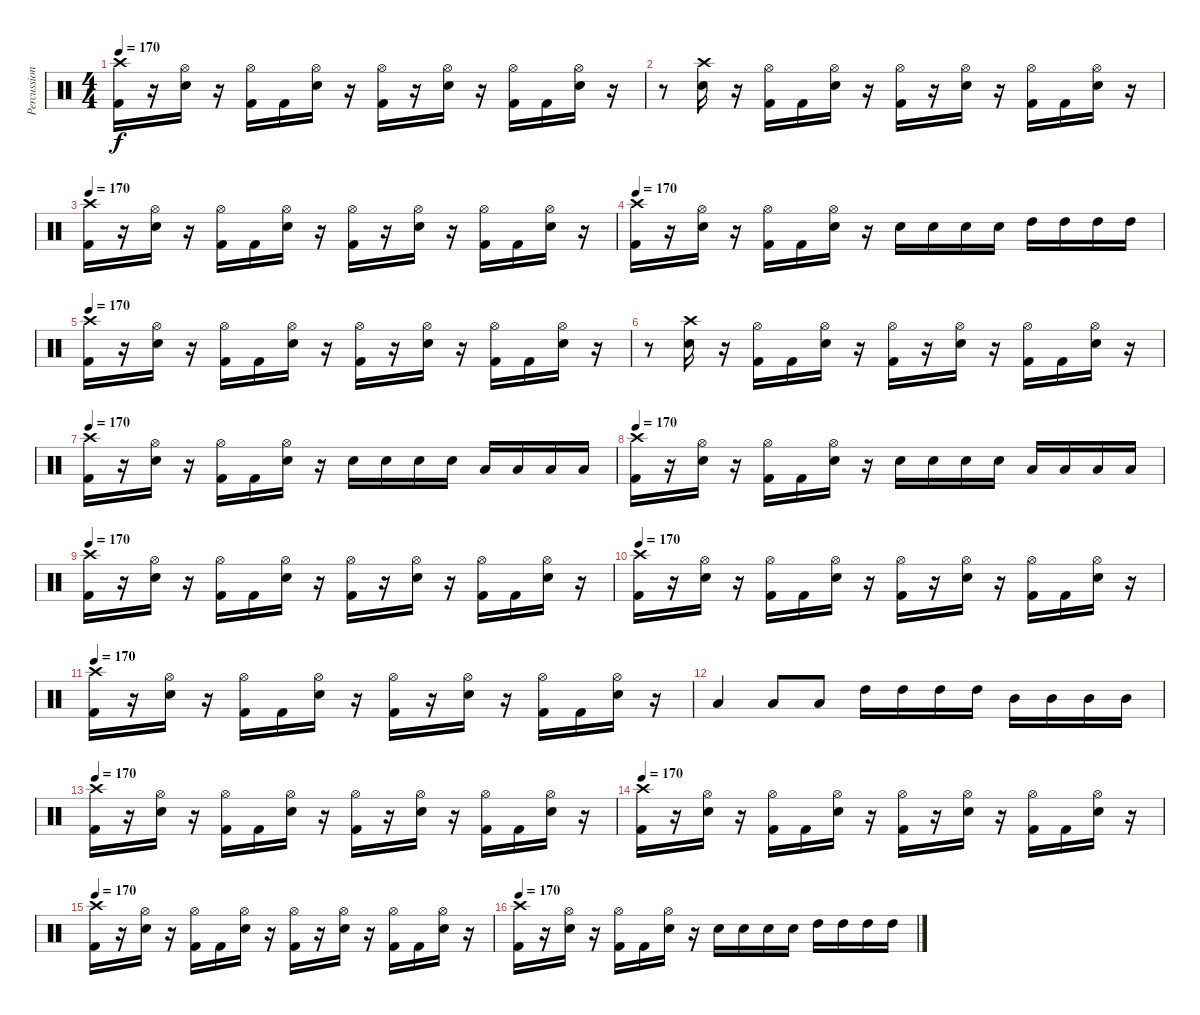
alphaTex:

\track ("Percussioni" "Percussion") {instrument percussion}
\staff {score}
\articulation defaults
\ts (4 4)
\tempo 170
\clef neutral
\ks c
("Kick (hit) 2" "Crash high (hit)").16{dy f} r.16 ("Snare (hit) 2" "Hi-Hat (open)").16 r.16 ("Kick (hit) 2" "Hi-Hat (open)").16 "Kick (hit) 2".16 ("Snare (hit) 2" "Hi-Hat (open)").16 r.16 ("Kick (hit) 2" "Hi-Hat (open)").16 r.16 ("Snare (hit) 2" "Hi-Hat (open)").16 r.16 ("Kick (hit) 2" "Hi-Hat (open)").16 "Kick (hit) 2".16 ("Snare (hit) 2" "Hi-Hat (open)").16 r.16 |
r.8 ("Snare (hit) 2" "Crash high (hit)").16 r.16 ("Kick (hit) 2" "Hi-Hat (open)").16 "Kick (hit) 2".16 ("Snare (hit) 2" "Hi-Hat (open)").16 r.16 ("Kick (hit) 2" "Hi-Hat (open)").16 r.16 ("Snare (hit) 2" "Hi-Hat (open)").16 r.16 ("Kick (hit) 2" "Hi-Hat (open)").16 "Kick (hit) 2".16 ("Snare (hit) 2" "Hi-Hat (open)").16 r.16 |
\tempo 170
("Kick (hit) 2" "Crash high (hit)").16 r.16 ("Snare (hit) 2" "Hi-Hat (open)").16 r.16 ("Kick (hit) 2" "Hi-Hat (open)").16 "Kick (hit) 2".16 ("Snare (hit) 2" "Hi-Hat (open)").16 r.16 ("Kick (hit) 2" "Hi-Hat (open)").16 r.16 ("Snare (hit) 2" "Hi-Hat (open)").16 r.16 ("Kick (hit) 2" "Hi-Hat (open)").16 "Kick (hit) 2".16 ("Snare (hit) 2" "Hi-Hat (open)").16 r.16 |
\tempo 170
("Kick (hit) 2" "Crash high (hit)").16 r.16 ("Snare (hit) 2" "Hi-Hat (open)").16 r.16 ("Kick (hit) 2" "Hi-Hat (open)").16 "Kick (hit) 2".16 ("Snare (hit) 2" "Hi-Hat (open)").16 r.16 "Snare (hit) 2".16 "Snare (hit) 2".16 "Snare (hit) 2".16 "Snare (hit) 2".16 "High Tom (hit)".16 "High Tom (hit)".16 "High Tom (hit)".16 "High Tom (hit)".16 |
\tempo 170
("Kick (hit) 2" "Crash high (hit)").16 r.16 ("Snare (hit) 2" "Hi-Hat (open)").16 r.16 ("Kick (hit) 2" "Hi-Hat (open)").16 "Kick (hit) 2".16 ("Snare (hit) 2" "Hi-Hat (open)").16 r.16 ("Kick (hit) 2" "Hi-Hat (open)").16 r.16 ("Snare (hit) 2" "Hi-Hat (open)").16 r.16 ("Kick (hit) 2" "Hi-Hat (open)").16 "Kick (hit) 2".16 ("Snare (hit) 2" "Hi-Hat (open)").16 r.16 |
r.8 ("Snare (hit) 2" "Crash high (hit)").16 r.16 ("Kick (hit) 2" "Hi-Hat (open)").16 "Kick (hit) 2".16 ("Snare (hit) 2" "Hi-Hat (open)").16 r.16 ("Kick (hit) 2" "Hi-Hat (open)").16 r.16 ("Snare (hit) 2" "Hi-Hat (open)").16 r.16 ("Kick (hit) 2" "Hi-Hat (open)").16 "Kick (hit) 2".16 ("Snare (hit) 2" "Hi-Hat (open)").16 r.16 |
\tempo 170
("Kick (hit) 2" "Crash high (hit)").16 r.16 ("Snare (hit) 2" "Hi-Hat (open)").16 r.16 ("Kick (hit) 2" "Hi-Hat (open)").16 "Kick (hit) 2".16 ("Snare (hit) 2" "Hi-Hat (open)").16 r.16 "Snare (hit) 2".16 "Snare (hit) 2".16 "Snare (hit) 2".16 "Snare (hit) 2".16 "Low Tom (hit)".16 "Low Tom (hit)".16 "Low Tom (hit)".16 "Low Tom (hit)".16 |
\tempo 170
("Kick (hit) 2" "Crash high (hit)").16 r.16 ("Snare (hit) 2" "Hi-Hat (open)").16 r.16 ("Kick (hit) 2" "Hi-Hat (open)").16 "Kick (hit) 2".16 ("Snare (hit) 2" "Hi-Hat (open)").16 r.16 "Snare (hit) 2".16 "Snare (hit) 2".16 "Snare (hit) 2".16 "Snare (hit) 2".16 "Low Tom (hit)".16 "Low Tom (hit)".16 "Low Tom (hit)".16 "Low Tom (hit)".16 |
\tempo 170
("Kick (hit) 2" "Crash high (hit)").16 r.16 ("Snare (hit) 2" "Hi-Hat (open)").16 r.16 ("Kick (hit) 2" "Hi-Hat (open)").16 "Kick (hit) 2".16 ("Snare (hit) 2" "Hi-Hat (open)").16 r.16 ("Kick (hit) 2" "Hi-Hat (open)").16 r.16 ("Snare (hit) 2" "Hi-Hat (open)").16 r.16 ("Kick (hit) 2" "Hi-Hat (open)").16 "Kick (hit) 2".16 ("Snare (hit) 2" "Hi-Hat (open)").16 r.16 |
\tempo 170
("Kick (hit) 2" "Crash high (hit)").16 r.16 ("Snare (hit) 2" "Hi-Hat (open)").16 r.16 ("Kick (hit) 2" "Hi-Hat (open)").16 "Kick (hit) 2".16 ("Snare (hit) 2" "Hi-Hat (open)").16 r.16 ("Kick (hit) 2" "Hi-Hat (open)").16 r.16 ("Snare (hit) 2" "Hi-Hat (open)").16 r.16 ("Kick (hit) 2" "Hi-Hat (open)").16 "Kick (hit) 2".16 ("Snare (hit) 2" "Hi-Hat (open)").16 r.16 |
\tempo 170
("Kick (hit) 2" "Crash high (hit)").16 r.16 ("Snare (hit) 2" "Hi-Hat (open)").16 r.16 ("Kick (hit) 2" "Hi-Hat (open)").16 "Kick (hit) 2".16 ("Snare (hit) 2" "Hi-Hat (open)").16 r.16 ("Kick (hit) 2" "Hi-Hat (open)").16 r.16 ("Snare (hit) 2" "Hi-Hat (open)").16 r.16 ("Kick (hit) 2" "Hi-Hat (open)").16 "Kick (hit) 2".16 ("Snare (hit) 2" "Hi-Hat (open)").16 r.16 |
"Low Tom (hit)".4 "Low Tom (hit)".8 "Low Tom (hit)".8 "High Tom (hit)".16 "High Tom (hit)".16 "High Tom (hit)".16 "High Tom (hit)".16 "Mid Tom (hit)".16 "Mid Tom (hit)".16 "Mid Tom (hit)".16 "Mid Tom (hit)".16 |
\tempo 170
("Kick (hit) 2" "Crash high (hit)").16 r.16 ("Snare (hit) 2" "Hi-Hat (open)").16 r.16 ("Kick (hit) 2" "Hi-Hat (open)").16 "Kick (hit) 2".16 ("Snare (hit) 2" "Hi-Hat (open)").16 r.16 ("Kick (hit) 2" "Hi-Hat (open)").16 r.16 ("Snare (hit) 2" "Hi-Hat (open)").16 r.16 ("Kick (hit) 2" "Hi-Hat (open)").16 "Kick (hit) 2".16 ("Snare (hit) 2" "Hi-Hat (open)").16 r.16 |
\tempo 170
("Kick (hit) 2" "Crash high (hit)").16 r.16 ("Snare (hit) 2" "Hi-Hat (open)").16 r.16 ("Kick (hit) 2" "Hi-Hat (open)").16 "Kick (hit) 2".16 ("Snare (hit) 2" "Hi-Hat (open)").16 r.16 ("Kick (hit) 2" "Hi-Hat (open)").16 r.16 ("Snare (hit) 2" "Hi-Hat (open)").16 r.16 ("Kick (hit) 2" "Hi-Hat (open)").16 "Kick (hit) 2".16 ("Snare (hit) 2" "Hi-Hat (open)").16 r.16 |
\tempo 170
("Kick (hit) 2" "Crash high (hit)").16 r.16 ("Snare (hit) 2" "Hi-Hat (open)").16 r.16 ("Kick (hit) 2" "Hi-Hat (open)").16 "Kick (hit) 2".16 ("Snare (hit) 2" "Hi-Hat (open)").16 r.16 ("Kick (hit) 2" "Hi-Hat (open)").16 r.16 ("Snare (hit) 2" "Hi-Hat (open)").16 r.16 ("Kick (hit) 2" "Hi-Hat (open)").16 "Kick (hit) 2".16 ("Snare (hit) 2" "Hi-Hat (open)").16 r.16 |
\tempo 170
("Kick (hit) 2" "Crash high (hit)").16 r.16 ("Snare (hit) 2" "Hi-Hat (open)").16 r.16 ("Kick (hit) 2" "Hi-Hat (open)").16 "Kick (hit) 2".16 ("Snare (hit) 2" "Hi-Hat (open)").16 r.16 "Snare (hit) 2".16 "Snare (hit) 2".16 "Snare (hit) 2".16 "Snare (hit) 2".16 "High Tom (hit)".16 "High Tom (hit)".16 "High Tom (hit)".16 "High Tom (hit)".16
